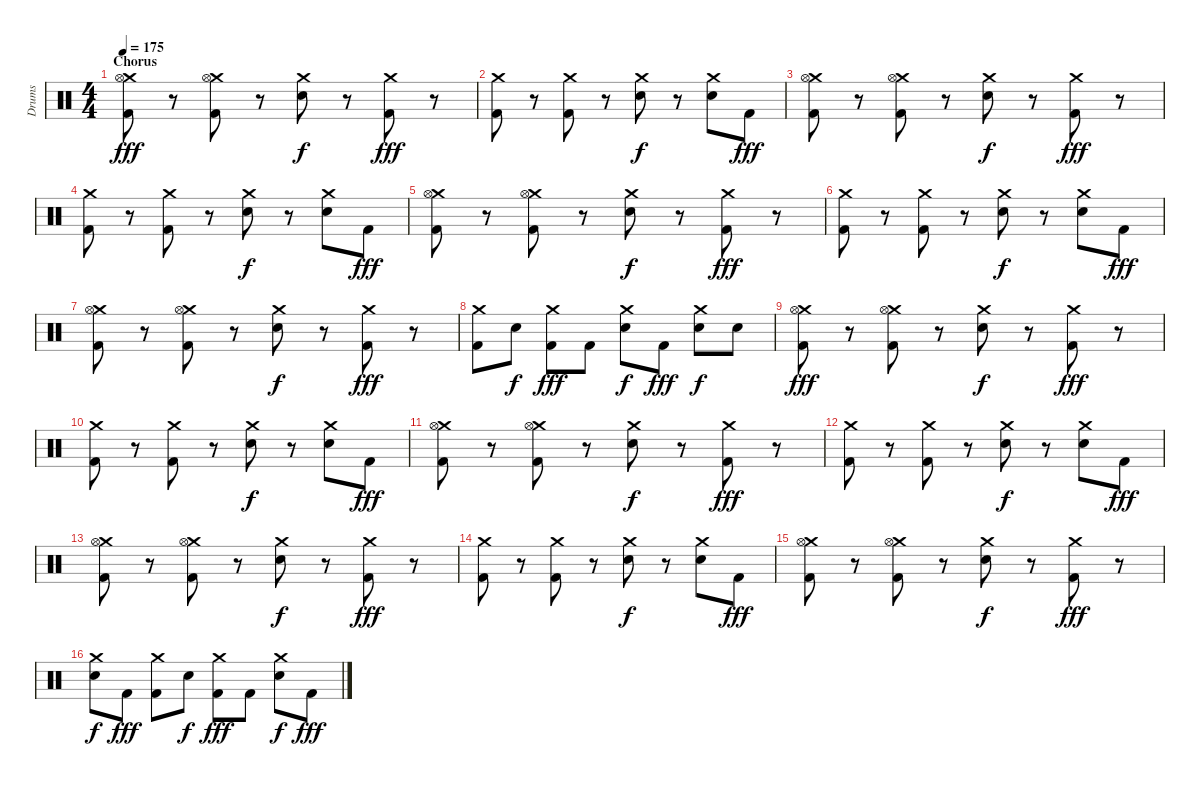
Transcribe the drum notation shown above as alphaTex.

\track ("Drums" "Drums") {instrument percussion}
\staff {score}
\articulation defaults
\ts (4 4)
\section ("" "Chorus")
\tempo 175
\clef neutral
\ks c
("Crash medium (hit)" "Hi-Hat (open)" "Kick (hit) 2").8{dy fff} r.8 ("Crash medium (hit)" "Hi-Hat (open)" "Kick (hit) 2").8 r.8 ("Crash medium (hit)" "Electric Snare (hit)").8{dy f} r.8 ("Crash medium (hit)" "Kick (hit) 2").8{dy fff} r.8 |
("Crash medium (hit)" "Kick (hit) 2").8 r.8 ("Crash medium (hit)" "Kick (hit) 2").8 r.8 ("Crash medium (hit)" "Electric Snare (hit)").8{dy f} r.8 ("Crash medium (hit)" "Electric Snare (hit)").8 "Kick (hit) 2".8{dy fff} |
("Crash medium (hit)" "Hi-Hat (open)" "Kick (hit) 2").8 r.8 ("Crash medium (hit)" "Hi-Hat (open)" "Kick (hit) 2").8 r.8 ("Crash medium (hit)" "Electric Snare (hit)").8{dy f} r.8 ("Crash medium (hit)" "Kick (hit) 2").8{dy fff} r.8 |
("Crash medium (hit)" "Kick (hit) 2").8 r.8 ("Crash medium (hit)" "Kick (hit) 2").8 r.8 ("Crash medium (hit)" "Electric Snare (hit)").8{dy f} r.8 ("Crash medium (hit)" "Electric Snare (hit)").8 "Kick (hit) 2".8{dy fff} |
("Crash medium (hit)" "Hi-Hat (open)" "Kick (hit) 2").8 r.8 ("Crash medium (hit)" "Hi-Hat (open)" "Kick (hit) 2").8 r.8 ("Crash medium (hit)" "Electric Snare (hit)").8{dy f} r.8 ("Crash medium (hit)" "Kick (hit) 2").8{dy fff} r.8 |
("Crash medium (hit)" "Kick (hit) 2").8 r.8 ("Crash medium (hit)" "Kick (hit) 2").8 r.8 ("Crash medium (hit)" "Electric Snare (hit)").8{dy f} r.8 ("Crash medium (hit)" "Electric Snare (hit)").8 "Kick (hit) 2".8{dy fff} |
("Crash medium (hit)" "Hi-Hat (open)" "Kick (hit) 2").8 r.8 ("Crash medium (hit)" "Hi-Hat (open)" "Kick (hit) 2").8 r.8 ("Crash medium (hit)" "Electric Snare (hit)").8{dy f} r.8 ("Crash medium (hit)" "Kick (hit) 2").8{dy fff} r.8 |
("Crash medium (hit)" "Kick (hit) 2").8 "Electric Snare (hit)".8{dy f} ("Crash medium (hit)" "Kick (hit) 2").8{dy fff} "Kick (hit) 2".8 ("Crash medium (hit)" "Electric Snare (hit)").8{dy f} "Kick (hit) 2".8{dy fff} ("Crash medium (hit)" "Electric Snare (hit)").8{dy f} "Electric Snare (hit)".8 |
("Crash medium (hit)" "Hi-Hat (open)" "Kick (hit) 2").8{dy fff} r.8 ("Crash medium (hit)" "Hi-Hat (open)" "Kick (hit) 2").8 r.8 ("Crash medium (hit)" "Electric Snare (hit)").8{dy f} r.8 ("Crash medium (hit)" "Kick (hit) 2").8{dy fff} r.8 |
("Crash medium (hit)" "Kick (hit) 2").8 r.8 ("Crash medium (hit)" "Kick (hit) 2").8 r.8 ("Crash medium (hit)" "Electric Snare (hit)").8{dy f} r.8 ("Crash medium (hit)" "Electric Snare (hit)").8 "Kick (hit) 2".8{dy fff} |
("Crash medium (hit)" "Hi-Hat (open)" "Kick (hit) 2").8 r.8 ("Crash medium (hit)" "Hi-Hat (open)" "Kick (hit) 2").8 r.8 ("Crash medium (hit)" "Electric Snare (hit)").8{dy f} r.8 ("Crash medium (hit)" "Kick (hit) 2").8{dy fff} r.8 |
("Crash medium (hit)" "Kick (hit) 2").8 r.8 ("Crash medium (hit)" "Kick (hit) 2").8 r.8 ("Crash medium (hit)" "Electric Snare (hit)").8{dy f} r.8 ("Crash medium (hit)" "Electric Snare (hit)").8 "Kick (hit) 2".8{dy fff} |
("Crash medium (hit)" "Hi-Hat (open)" "Kick (hit) 2").8 r.8 ("Crash medium (hit)" "Hi-Hat (open)" "Kick (hit) 2").8 r.8 ("Crash medium (hit)" "Electric Snare (hit)").8{dy f} r.8 ("Crash medium (hit)" "Kick (hit) 2").8{dy fff} r.8 |
("Crash medium (hit)" "Kick (hit) 2").8 r.8 ("Crash medium (hit)" "Kick (hit) 2").8 r.8 ("Crash medium (hit)" "Electric Snare (hit)").8{dy f} r.8 ("Crash medium (hit)" "Electric Snare (hit)").8 "Kick (hit) 2".8{dy fff} |
("Crash medium (hit)" "Hi-Hat (open)" "Kick (hit) 2").8 r.8 ("Crash medium (hit)" "Hi-Hat (open)" "Kick (hit) 2").8 r.8 ("Crash medium (hit)" "Electric Snare (hit)").8{dy f} r.8 ("Crash medium (hit)" "Kick (hit) 2").8{dy fff} r.8 |
("Crash medium (hit)" "Electric Snare (hit)").8{dy f} "Kick (hit) 2".8{dy fff} ("Crash medium (hit)" "Kick (hit) 2").8 "Electric Snare (hit)".8{dy f} ("Crash medium (hit)" "Kick (hit) 2").8{dy fff} "Kick (hit) 2".8 ("Crash medium (hit)" "Electric Snare (hit)").8{dy f} "Kick (hit) 2".8{dy fff}
